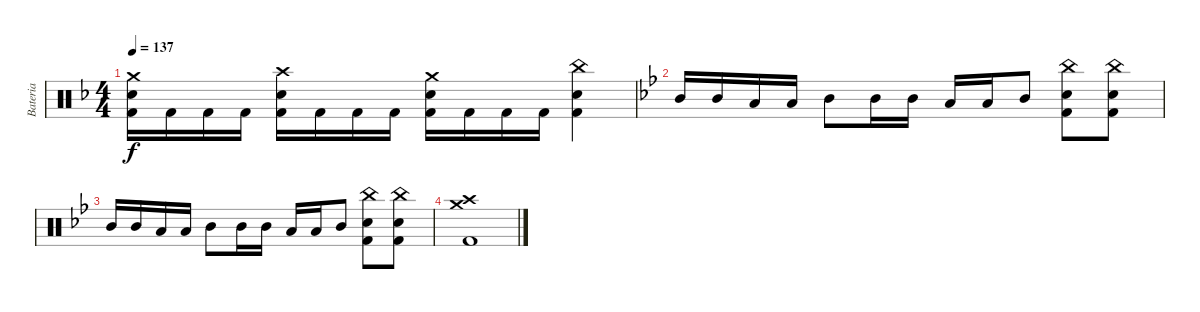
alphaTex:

\track ("Bateria" "Bateria") {instrument percussion}
\staff {score}
\articulation defaults
\ts (4 4)
\tempo 137
\clef neutral
\ks dminor
("Crash medium (hit)" "Electric Snare (hit)" "Kick (hit) 2").16{dy f} "Kick (hit) 2".16 "Kick (hit) 2".16 "Kick (hit) 2".16 ("Crash high (hit)" "Electric Snare (hit)" "Kick (hit) 2").16 "Kick (hit) 2".16 "Kick (hit) 2".16 "Kick (hit) 2".16 ("Crash medium (hit)" "Electric Snare (hit)" "Kick (hit) 2").16 "Kick (hit) 2".16 "Kick (hit) 2".16 "Kick (hit) 2".16 ("China (hit)" "Electric Snare (hit)" "Kick (hit) 2").4 |
\ks gminor "Mid Tom (hit)".16 "Mid Tom (hit)".16 "Low Tom (hit)".16 "Low Tom (hit)".16 "Mid Tom (hit)".8 "Mid Tom (hit)".16 "Mid Tom (hit)".16 "Low Tom (hit)".16 "Low Tom (hit)".16 "Mid Tom (hit)".8
("China (hit)" "Electric Snare (hit)" "Kick (hit) 2").8 ("China (hit)" "Electric Snare (hit)" "Kick (hit) 2").8 |
"Mid Tom (hit)".16 "Mid Tom (hit)".16 "Low Tom (hit)".16 "Low Tom (hit)".16 "Mid Tom (hit)".8 "Mid Tom (hit)".16 "Mid Tom (hit)".16 "Low Tom (hit)".16 "Low Tom (hit)".16 "Mid Tom (hit)".8 ("China (hit)" "Electric Snare (hit)" "Kick (hit) 2").8 ("China (hit)" "Electric Snare (hit)" "Kick (hit) 2").8 |
("Crash medium (hit)" "Crash high (hit)" "Kick (hit) 2").1
